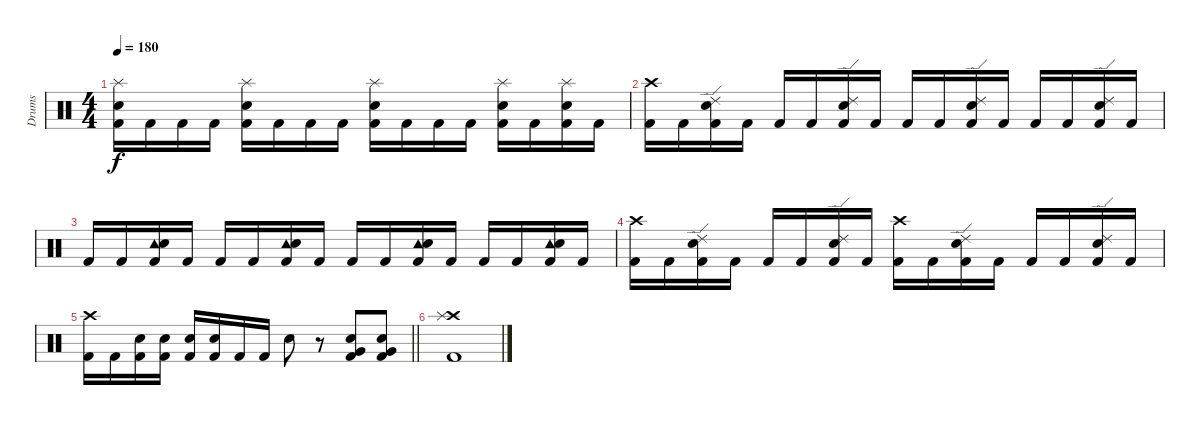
\track ("Drums" "Drums") {instrument percussion}
\staff {score}
\articulation defaults
\ts (4 4)
\tempo 180
\clef neutral
\ks c
("Splash (hit)" "Electric Snare (hit)" "Kick (hit) 2").16{dy f} "Kick (hit) 2".16 "Kick (hit) 2".16 "Kick (hit) 2".16 ("Splash (hit)" "Electric Snare (hit)" "Kick (hit) 2").16 "Kick (hit) 2".16 "Kick (hit) 2".16 "Kick (hit) 2".16 ("Splash (hit)" "Electric Snare (hit)" "Kick (hit) 2").16 "Kick (hit) 2".16 "Kick (hit) 2".16 "Kick (hit) 2".16 ("Splash (hit)" "Electric Snare (hit)" "Kick (hit) 2").16 "Kick (hit) 2".16 ("Splash (hit)" "Electric Snare (hit)" "Kick (hit) 2").16 "Kick (hit) 2".16 |
("Crash high (hit)" "Kick (hit) 2").16 "Kick (hit) 2".16 ("Ride (edge) 2" "Electric Snare (hit)" "Kick (hit) 2").16 "Kick (hit) 2".16 "Kick (hit) 2".16 "Kick (hit) 2".16 ("Ride (edge) 2" "Electric Snare (hit)" "Kick (hit) 2").16 "Kick (hit) 2".16 "Kick (hit) 2".16 "Kick (hit) 2".16 ("Ride (edge) 2" "Electric Snare (hit)" "Kick (hit) 2").16 "Kick (hit) 2".16 "Kick (hit) 2".16 "Kick (hit) 2".16 ("Ride (edge) 2" "Electric Snare (hit)" "Kick (hit) 2").16 "Kick (hit) 2".16 |
"Kick (hit) 2".16 "Kick (hit) 2".16 ("Tambourine (hit)" "Electric Snare (hit)" "Kick (hit) 2").16 "Kick (hit) 2".16 "Kick (hit) 2".16 "Kick (hit) 2".16 ("Tambourine (hit)" "Electric Snare (hit)" "Kick (hit) 2").16 "Kick (hit) 2".16 "Kick (hit) 2".16 "Kick (hit) 2".16 ("Tambourine (hit)" "Electric Snare (hit)" "Kick (hit) 2").16 "Kick (hit) 2".16 "Kick (hit) 2".16 "Kick (hit) 2".16 ("Tambourine (hit)" "Electric Snare (hit)" "Kick (hit) 2").16 "Kick (hit) 2".16 |
("Crash high (hit)" "Kick (hit) 2").16 "Kick (hit) 2".16 ("Ride (edge) 2" "Electric Snare (hit)" "Kick (hit) 2").16 "Kick (hit) 2".16 "Kick (hit) 2".16 "Kick (hit) 2".16 ("Ride (edge) 2" "Electric Snare (hit)" "Kick (hit) 2").16 "Kick (hit) 2".16 ("Crash high (hit)" "Kick (hit) 2").16 "Kick (hit) 2".16 ("Ride (edge) 2" "Electric Snare (hit)" "Kick (hit) 2").16 "Kick (hit) 2".16 "Kick (hit) 2".16 "Kick (hit) 2".16 ("Ride (edge) 2" "Electric Snare (hit)" "Kick (hit) 2").16 "Kick (hit) 2".16 |
\barLineRight lightlight
("Crash high (hit)" "Kick (hit) 2").16 "Kick (hit) 2".16 ("Electric Snare (hit)" "Kick (hit) 2").16 ("Electric Snare (hit)" "Kick (hit) 2").16 ("Electric Snare (hit)" "Kick (hit) 2").16 ("Electric Snare (hit)" "Kick (hit) 2").16 "Kick (hit) 2".16 "Kick (hit) 2".16 "Electric Snare (hit)".8 r.8 ("Very Low Tom (hit)" "Electric Snare (hit)" "Kick (hit) 2").8 ("Very Low Tom (hit)" "Electric Snare (hit)" "Kick (hit) 2").8 |
("Crash high (hit)" "Splash (hit)" "Kick (hit) 2").1
